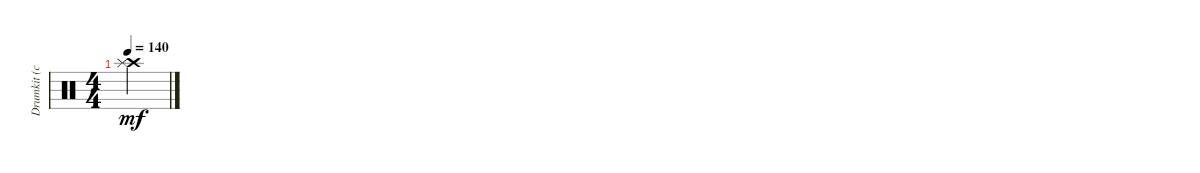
\track ("Drumkit (cymbals)" "Drumkit (c") {instrument percussion}
\staff {score}
\articulation defaults
\ts (4 4)
\tempo 140
\clef neutral
\ks c
("Crash high (hit)" "Splash (hit)").4{dy mf}
